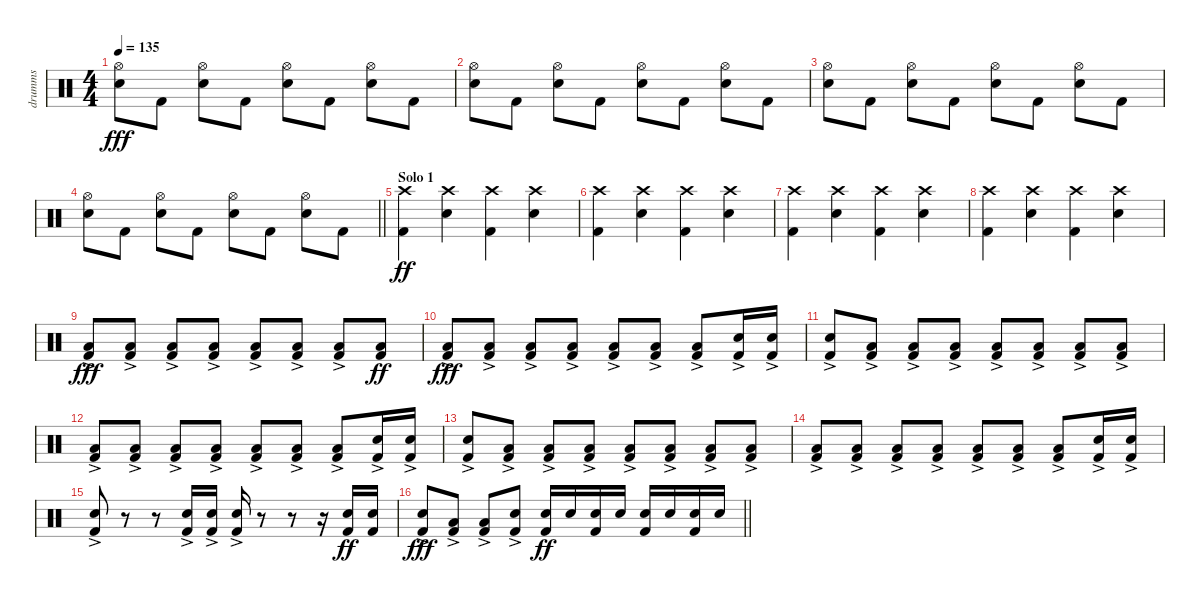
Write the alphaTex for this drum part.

\track ("drumms" "drumms") {instrument percussion}
\staff
\articulation defaults
\ts (4 4)
\tempo 135
\clef neutral
\ks c
("Hi-Hat (open)" "Snare (hit) 2").8{dy fff} "Kick (hit) 2".8 ("Hi-Hat (open)" "Snare (hit) 2").8 "Kick (hit) 2".8 ("Hi-Hat (open)" "Snare (hit) 2").8 "Kick (hit) 2".8 ("Hi-Hat (open)" "Snare (hit) 2").8 "Kick (hit) 2".8 |
("Hi-Hat (open)" "Snare (hit) 2").8 "Kick (hit) 2".8 ("Hi-Hat (open)" "Snare (hit) 2").8 "Kick (hit) 2".8 ("Hi-Hat (open)" "Snare (hit) 2").8 "Kick (hit) 2".8 ("Hi-Hat (open)" "Snare (hit) 2").8 "Kick (hit) 2".8 |
("Hi-Hat (open)" "Snare (hit) 2").8 "Kick (hit) 2".8 ("Hi-Hat (open)" "Snare (hit) 2").8 "Kick (hit) 2".8 ("Hi-Hat (open)" "Snare (hit) 2").8 "Kick (hit) 2".8 ("Hi-Hat (open)" "Snare (hit) 2").8 "Kick (hit) 2".8 |
\barLineRight lightlight
("Hi-Hat (open)" "Snare (hit) 2").8 "Kick (hit) 2".8 ("Hi-Hat (open)" "Snare (hit) 2").8 "Kick (hit) 2".8 ("Hi-Hat (open)" "Snare (hit) 2").8 "Kick (hit) 2".8 ("Hi-Hat (open)" "Snare (hit) 2").8 "Kick (hit) 2".8 |
\section ("" "Solo 1")
("Crash high (hit)" "Kick (hit) 2").4{dy ff} ("Crash high (hit)" "Snare (hit) 2").4 ("Crash high (hit)" "Kick (hit) 2").4 ("Crash high (hit)" "Snare (hit) 2").4 |
("Crash high (hit)" "Kick (hit) 2").4 ("Crash high (hit)" "Snare (hit) 2").4 ("Crash high (hit)" "Kick (hit) 2").4 ("Crash high (hit)" "Snare (hit) 2").4 |
("Crash high (hit)" "Kick (hit) 2").4 ("Crash high (hit)" "Snare (hit) 2").4 ("Crash high (hit)" "Kick (hit) 2").4 ("Crash high (hit)" "Snare (hit) 2").4 |
("Crash high (hit)" "Kick (hit) 2").4 ("Crash high (hit)" "Snare (hit) 2").4 ("Crash high (hit)" "Kick (hit) 2").4 ("Crash high (hit)" "Snare (hit) 2").4 |
("Low Tom (hit)"{ac} "Kick (hit) 2"{ac}).8{dy fff volume 5} ("Low Tom (hit)"{ac} "Kick (hit) 2"{ac}).8 ("Low Tom (hit)"{ac} "Kick (hit) 2"{ac}).8 ("Low Tom (hit)"{ac} "Kick (hit) 2"{ac}).8 ("Low Tom (hit)"{ac} "Kick (hit) 2"{ac}).8 ("Low Tom (hit)"{ac} "Kick (hit) 2"{ac}).8 ("Low Tom (hit)"{ac} "Kick (hit) 2"{ac}).8 ("Low Tom (hit)" "Kick (hit) 2").8{dy ff} |
("Low Tom (hit)"{ac} "Kick (hit) 2"{ac}).8{dy fff} ("Low Tom (hit)"{ac} "Kick (hit) 2"{ac}).8 ("Low Tom (hit)"{ac} "Kick (hit) 2"{ac}).8 ("Low Tom (hit)"{ac} "Kick (hit) 2"{ac}).8 ("Low Tom (hit)"{ac} "Kick (hit) 2"{ac}).8 ("Low Tom (hit)"{ac} "Kick (hit) 2"{ac}).8 ("Low Tom (hit)"{ac} "Kick (hit) 2"{ac}).8 ("Snare (hit) 2"{ac} "Kick (hit) 2"{ac}).16 ("Snare (hit) 2"{ac} "Kick (hit) 2"{ac}).16 |
("Snare (hit) 2"{ac} "Kick (hit) 2"{ac}).8 ("Low Tom (hit)"{ac} "Kick (hit) 2"{ac}).8 ("Low Tom (hit)"{ac} "Kick (hit) 2"{ac}).8 ("Low Tom (hit)"{ac} "Kick (hit) 2"{ac}).8 ("Low Tom (hit)"{ac} "Kick (hit) 2"{ac}).8 ("Low Tom (hit)"{ac} "Kick (hit) 2"{ac}).8 ("Low Tom (hit)"{ac} "Kick (hit) 2"{ac}).8 ("Low Tom (hit)"{ac} "Kick (hit) 2"{ac}).8 |
("Low Tom (hit)"{ac} "Kick (hit) 2"{ac}).8 ("Low Tom (hit)"{ac} "Kick (hit) 2"{ac}).8 ("Low Tom (hit)"{ac} "Kick (hit) 2"{ac}).8 ("Low Tom (hit)"{ac} "Kick (hit) 2"{ac}).8 ("Low Tom (hit)"{ac} "Kick (hit) 2"{ac}).8 ("Low Tom (hit)"{ac} "Kick (hit) 2"{ac}).8 ("Low Tom (hit)"{ac} "Kick (hit) 2"{ac}).8 ("Snare (hit) 2"{ac} "Kick (hit) 2"{ac}).16 ("Snare (hit) 2"{ac} "Kick (hit) 2"{ac}).16 |
("Snare (hit) 2"{ac} "Kick (hit) 2"{ac}).8 ("Low Tom (hit)"{ac} "Kick (hit) 2"{ac}).8 ("Low Tom (hit)"{ac} "Kick (hit) 2"{ac}).8 ("Low Tom (hit)"{ac} "Kick (hit) 2"{ac}).8 ("Low Tom (hit)"{ac} "Kick (hit) 2"{ac}).8 ("Low Tom (hit)"{ac} "Kick (hit) 2"{ac}).8 ("Low Tom (hit)"{ac} "Kick (hit) 2"{ac}).8 ("Low Tom (hit)"{ac} "Kick (hit) 2"{ac}).8 |
("Low Tom (hit)"{ac} "Kick (hit) 2"{ac}).8 ("Low Tom (hit)"{ac} "Kick (hit) 2"{ac}).8 ("Low Tom (hit)"{ac} "Kick (hit) 2"{ac}).8 ("Low Tom (hit)"{ac} "Kick (hit) 2"{ac}).8 ("Low Tom (hit)"{ac} "Kick (hit) 2"{ac}).8 ("Low Tom (hit)"{ac} "Kick (hit) 2"{ac}).8 ("Low Tom (hit)"{ac} "Kick (hit) 2"{ac}).8 ("Snare (hit) 2"{ac} "Kick (hit) 2"{ac}).16 ("Snare (hit) 2"{ac} "Kick (hit) 2"{ac}).16 |
("Snare (hit) 2"{ac} "Kick (hit) 2"{ac}).8 r.8 r.8 ("Snare (hit) 2"{ac} "Kick (hit) 2"{ac}).16 ("Snare (hit) 2"{ac} "Kick (hit) 2"{ac}).16 ("Snare (hit) 2"{ac} "Kick (hit) 2"{ac}).16 r.8 r.8 r.16 ("Snare (hit) 2" "Kick (hit) 2").16{dy ff} ("Snare (hit) 2" "Kick (hit) 2").16 |
\barLineRight lightlight
("Snare (hit) 2"{ac} "Kick (hit) 2"{ac}).8{dy fff} ("Low Tom (hit)"{ac} "Kick (hit) 2"{ac}).8 ("Low Tom (hit)"{ac} "Kick (hit) 2"{ac}).8 ("Kick (hit) 2" "Snare (hit) 2"{ac}).8 ("Kick (hit) 2" "Snare (hit) 2").16{dy ff} "Snare (hit) 2".16 ("Kick (hit) 2" "Snare (hit) 2").16 "Snare (hit) 2".16 ("Kick (hit) 2" "Snare (hit) 2").16 "Snare (hit) 2".16 ("Kick (hit) 2" "Snare (hit) 2").16 "Snare (hit) 2".16
